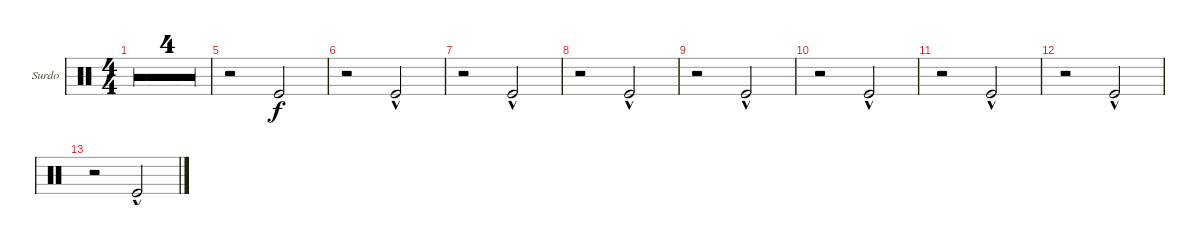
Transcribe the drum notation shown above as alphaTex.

\defaultSystemsLayout 4
\bracketExtendMode groupsimilarinstruments
\firstSystemTrackNameOrientation horizontal
\otherSystemsTrackNameOrientation horizontal
\track ("Surdo" "Surdo") {multiBarRest instrument percussion}
\staff {score}
\articulation defaults
\ts (4 4)
\tempo 120
\clef neutral
\ks c
|
|
|
|
r.2 "Kick (hit)".2 |
r.2 "Kick (hit)"{hac}.2 |
r.2 "Kick (hit)"{hac}.2 |
r.2 "Kick (hit)"{hac}.2 |
r.2 "Kick (hit)"{hac}.2 |
r.2 "Kick (hit)"{hac}.2 |
r.2 "Kick (hit)"{hac}.2 |
r.2 "Kick (hit)"{hac}.2 |
r.2 "Kick (hit)"{hac}.2
